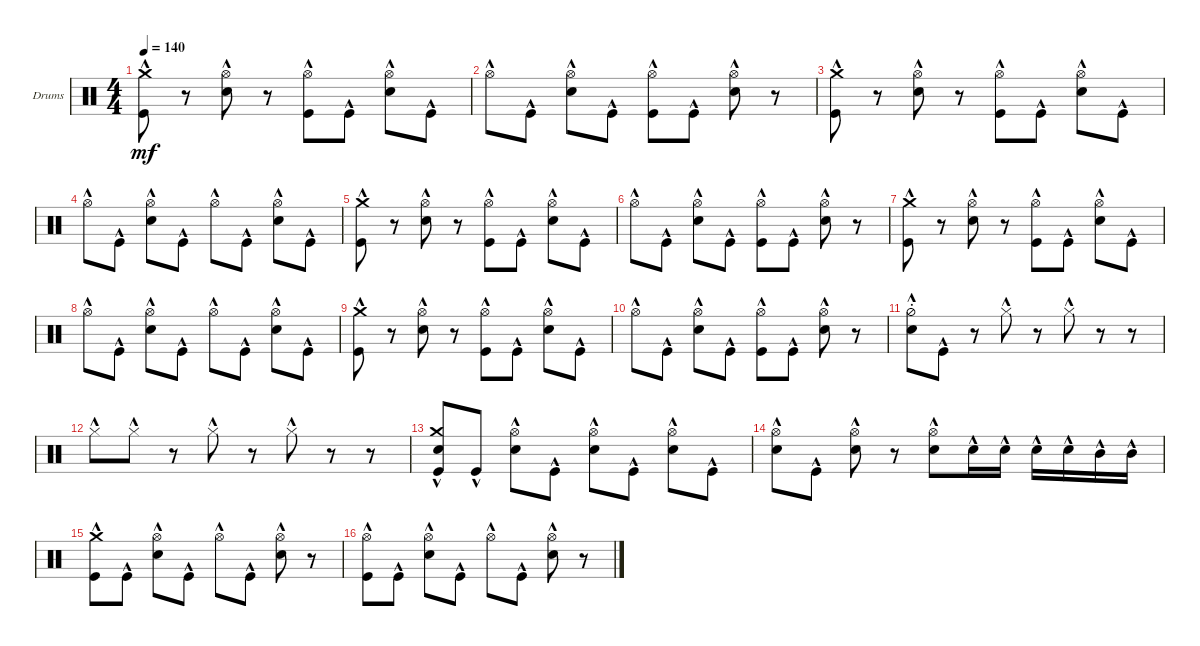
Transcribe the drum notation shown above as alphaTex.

\defaultSystemsLayout 4
\bracketExtendMode groupsimilarinstruments
\firstSystemTrackNameOrientation horizontal
\otherSystemsTrackNameOrientation horizontal
\track ("Drumkit" "Drums") {instrument percussion}
\staff {score}
\articulation defaults
\ts (4 4)
\tempo 140
\clef neutral
\ks c
("Kick (hit)"{hac} "Crash medium (hit)"{hac}).8{dy mf} r.8 ("Hi-Hat (open)"{hac} "Snare (hit) 2"{hac}).8 r.8 ("Hi-Hat (open)"{hac} "Kick (hit)"{hac}).8 "Kick (hit)"{hac}.8 ("Hi-Hat (open)"{hac} "Snare (hit) 2"{hac}).8 "Kick (hit)"{hac}.8 |
"Hi-Hat (open)"{hac}.8 "Kick (hit)"{hac}.8 ("Hi-Hat (open)"{hac} "Snare (hit) 2"{hac}).8 "Kick (hit)"{hac}.8 ("Hi-Hat (open)"{hac} "Kick (hit)"{hac}).8 "Kick (hit)"{hac}.8 ("Hi-Hat (open)"{hac} "Snare (hit) 2"{hac}).8 r.8 |
("Kick (hit)"{hac} "Crash medium (hit)"{hac}).8 r.8 ("Hi-Hat (open)"{hac} "Snare (hit) 2"{hac}).8 r.8 ("Hi-Hat (open)"{hac} "Kick (hit)"{hac}).8 "Kick (hit)"{hac}.8 ("Hi-Hat (open)"{hac} "Snare (hit) 2"{hac}).8 "Kick (hit)"{hac}.8 |
"Hi-Hat (open)"{hac}.8 "Kick (hit)"{hac}.8 ("Hi-Hat (open)"{hac} "Snare (hit) 2"{hac}).8 "Kick (hit)"{hac}.8 "Hi-Hat (open)"{hac}.8 "Kick (hit)"{hac}.8 ("Hi-Hat (open)"{hac} "Snare (hit) 2"{hac}).8 "Kick (hit)"{hac}.8 |
("Kick (hit)"{hac} "Crash medium (hit)"{hac}).8 r.8 ("Hi-Hat (open)"{hac} "Snare (hit) 2"{hac}).8 r.8 ("Hi-Hat (open)"{hac} "Kick (hit)"{hac}).8 "Kick (hit)"{hac}.8 ("Hi-Hat (open)"{hac} "Snare (hit) 2"{hac}).8 "Kick (hit)"{hac}.8 |
"Hi-Hat (open)"{hac}.8 "Kick (hit)"{hac}.8 ("Hi-Hat (open)"{hac} "Snare (hit) 2"{hac}).8 "Kick (hit)"{hac}.8 ("Hi-Hat (open)"{hac} "Kick (hit)"{hac}).8 "Kick (hit)"{hac}.8 ("Hi-Hat (open)"{hac} "Snare (hit) 2"{hac}).8 r.8 |
("Kick (hit)"{hac} "Crash medium (hit)"{hac}).8 r.8 ("Hi-Hat (open)"{hac} "Snare (hit) 2"{hac}).8 r.8 ("Hi-Hat (open)"{hac} "Kick (hit)"{hac}).8 "Kick (hit)"{hac}.8 ("Hi-Hat (open)"{hac} "Snare (hit) 2"{hac}).8 "Kick (hit)"{hac}.8 |
"Hi-Hat (open)"{hac}.8 "Kick (hit)"{hac}.8 ("Hi-Hat (open)"{hac} "Snare (hit) 2"{hac}).8 "Kick (hit)"{hac}.8 "Hi-Hat (open)"{hac}.8 "Kick (hit)"{hac}.8 ("Hi-Hat (open)"{hac} "Snare (hit) 2"{hac}).8 "Kick (hit)"{hac}.8 |
("Kick (hit)"{hac} "Crash medium (hit)"{hac}).8 r.8 ("Hi-Hat (open)"{hac} "Snare (hit) 2"{hac}).8 r.8 ("Hi-Hat (open)"{hac} "Kick (hit)"{hac}).8 "Kick (hit)"{hac}.8 ("Hi-Hat (open)"{hac} "Snare (hit) 2"{hac}).8 "Kick (hit)"{hac}.8 |
"Hi-Hat (open)"{hac}.8 "Kick (hit)"{hac}.8 ("Hi-Hat (open)"{hac} "Snare (hit) 2"{hac}).8 "Kick (hit)"{hac}.8 ("Hi-Hat (open)"{hac} "Kick (hit)"{hac}).8 "Kick (hit)"{hac}.8 ("Hi-Hat (open)"{hac} "Snare (hit) 2"{hac}).8 r.8 |
("Snare (hit) 2"{hac st} "Hi-Hat (half)"{hac st}).8 "Kick (hit)"{hac}.8 r.8 "Hi-Hat (closed)"{hac}.8 r.8 "Hi-Hat (closed)"{hac}.8 r.8 r.8 |
"Hi-Hat (closed)"{hac}.8 "Hi-Hat (closed)"{hac}.8 r.8 "Hi-Hat (closed)"{hac}.8 r.8 "Hi-Hat (closed)"{hac}.8 r.8 r.8 |
("Kick (hit)"{hac} "Snare (hit) 2"{hac} "Crash medium (hit)"{hac}).8 "Kick (hit)"{hac}.8 ("Snare (hit) 2"{hac} "Hi-Hat (open)"{hac}).8 "Kick (hit)"{hac}.8 ("Snare (hit) 2"{hac} "Hi-Hat (open)"{hac}).8 "Kick (hit)"{hac}.8 ("Snare (hit) 2"{hac} "Hi-Hat (open)"{hac}).8 "Kick (hit)"{hac}.8 |
("Snare (hit) 2"{hac} "Hi-Hat (open)"{hac}).8 "Kick (hit)"{hac}.8 ("Snare (hit) 2"{hac} "Hi-Hat (open)"{hac}).8 r.8 ("Snare (hit) 2"{hac} "Hi-Hat (open)"{hac}).8 "Snare (hit) 2"{hac}.16 "Snare (hit) 2"{hac}.16 "Snare (hit) 2"{hac}.16 "Snare (hit) 2"{hac}.16 "Mid Tom (hit)"{hac}.16 "Mid Tom (hit)"{hac}.16 |
("Kick (hit)"{hac} "Crash medium (hit)"{hac}).8 "Kick (hit)"{hac}.8 ("Hi-Hat (open)"{hac} "Snare (hit) 2"{hac}).8 "Kick (hit)"{hac}.8 "Hi-Hat (open)"{hac}.8 "Kick (hit)"{hac}.8 ("Hi-Hat (open)"{hac} "Snare (hit) 2"{hac}).8 r.8 |
("Kick (hit)"{hac} "Hi-Hat (open)"{hac}).8 "Kick (hit)"{hac}.8 ("Hi-Hat (open)"{hac} "Snare (hit) 2"{hac}).8 "Kick (hit)"{hac}.8 "Hi-Hat (open)"{hac}.8 "Kick (hit)"{hac}.8 ("Hi-Hat (open)"{hac} "Snare (hit) 2"{hac}).8 r.8
